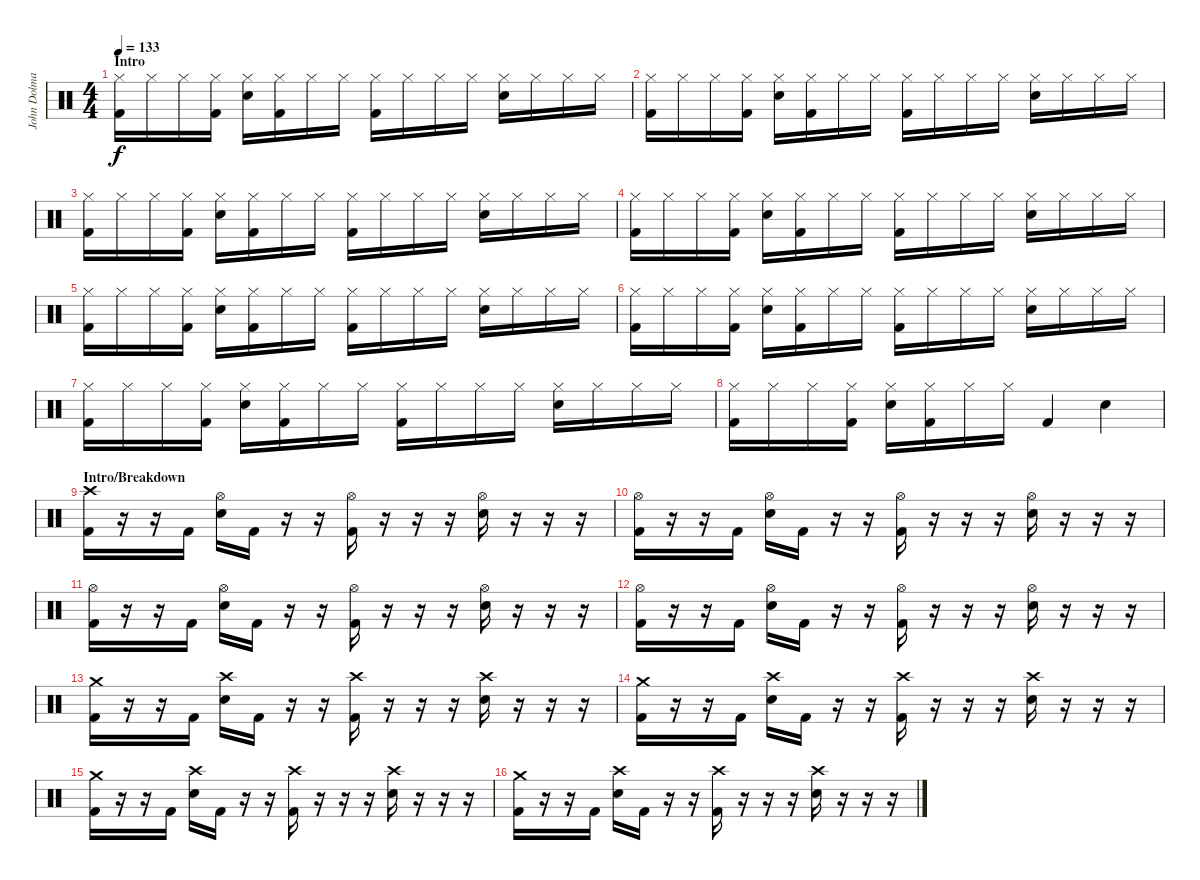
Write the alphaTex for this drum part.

\track ("John Dolmayan" "John Dolma") {instrument percussion}
\staff {score}
\articulation defaults
\ts (4 4)
\section ("" "Intro")
\tempo 133
\clef neutral
\ks c
("Hi-Hat (closed)" "Kick (hit) 2").16{dy f} "Hi-Hat (closed)".16 "Hi-Hat (closed)".16 ("Hi-Hat (closed)" "Kick (hit) 2").16 ("Hi-Hat (closed)" "Electric Snare (hit)").16 ("Hi-Hat (closed)" "Kick (hit) 2").16 "Hi-Hat (closed)".16 "Hi-Hat (closed)".16 ("Hi-Hat (closed)" "Kick (hit) 2").16 "Hi-Hat (closed)".16 "Hi-Hat (closed)".16 "Hi-Hat (closed)".16 ("Hi-Hat (closed)" "Electric Snare (hit)").16 "Hi-Hat (closed)".16 "Hi-Hat (closed)".16 "Hi-Hat (closed)".16 |
("Hi-Hat (closed)" "Kick (hit) 2").16 "Hi-Hat (closed)".16 "Hi-Hat (closed)".16 ("Hi-Hat (closed)" "Kick (hit) 2").16 ("Hi-Hat (closed)" "Electric Snare (hit)").16 ("Hi-Hat (closed)" "Kick (hit) 2").16 "Hi-Hat (closed)".16 "Hi-Hat (closed)".16 ("Hi-Hat (closed)" "Kick (hit) 2").16 "Hi-Hat (closed)".16 "Hi-Hat (closed)".16 "Hi-Hat (closed)".16 ("Hi-Hat (closed)" "Electric Snare (hit)").16 "Hi-Hat (closed)".16 "Hi-Hat (closed)".16 "Hi-Hat (closed)".16 |
("Hi-Hat (closed)" "Kick (hit) 2").16 "Hi-Hat (closed)".16 "Hi-Hat (closed)".16 ("Hi-Hat (closed)" "Kick (hit) 2").16 ("Hi-Hat (closed)" "Electric Snare (hit)").16 ("Hi-Hat (closed)" "Kick (hit) 2").16 "Hi-Hat (closed)".16 "Hi-Hat (closed)".16 ("Hi-Hat (closed)" "Kick (hit) 2").16 "Hi-Hat (closed)".16 "Hi-Hat (closed)".16 "Hi-Hat (closed)".16 ("Hi-Hat (closed)" "Electric Snare (hit)").16 "Hi-Hat (closed)".16 "Hi-Hat (closed)".16 "Hi-Hat (closed)".16 |
("Hi-Hat (closed)" "Kick (hit) 2").16 "Hi-Hat (closed)".16 "Hi-Hat (closed)".16 ("Hi-Hat (closed)" "Kick (hit) 2").16 ("Hi-Hat (closed)" "Electric Snare (hit)").16 ("Hi-Hat (closed)" "Kick (hit) 2").16 "Hi-Hat (closed)".16 "Hi-Hat (closed)".16 ("Hi-Hat (closed)" "Kick (hit) 2").16 "Hi-Hat (closed)".16 "Hi-Hat (closed)".16 "Hi-Hat (closed)".16 ("Hi-Hat (closed)" "Electric Snare (hit)").16 "Hi-Hat (closed)".16 "Hi-Hat (closed)".16 "Hi-Hat (closed)".16 |
("Hi-Hat (closed)" "Kick (hit) 2").16 "Hi-Hat (closed)".16 "Hi-Hat (closed)".16 ("Hi-Hat (closed)" "Kick (hit) 2").16 ("Hi-Hat (closed)" "Electric Snare (hit)").16 ("Hi-Hat (closed)" "Kick (hit) 2").16 "Hi-Hat (closed)".16 "Hi-Hat (closed)".16 ("Hi-Hat (closed)" "Kick (hit) 2").16 "Hi-Hat (closed)".16 "Hi-Hat (closed)".16 "Hi-Hat (closed)".16 ("Hi-Hat (closed)" "Electric Snare (hit)").16 "Hi-Hat (closed)".16 "Hi-Hat (closed)".16 "Hi-Hat (closed)".16 |
("Hi-Hat (closed)" "Kick (hit) 2").16 "Hi-Hat (closed)".16 "Hi-Hat (closed)".16 ("Hi-Hat (closed)" "Kick (hit) 2").16 ("Hi-Hat (closed)" "Electric Snare (hit)").16 ("Hi-Hat (closed)" "Kick (hit) 2").16 "Hi-Hat (closed)".16 "Hi-Hat (closed)".16 ("Hi-Hat (closed)" "Kick (hit) 2").16 "Hi-Hat (closed)".16 "Hi-Hat (closed)".16 "Hi-Hat (closed)".16 ("Hi-Hat (closed)" "Electric Snare (hit)").16 "Hi-Hat (closed)".16 "Hi-Hat (closed)".16 "Hi-Hat (closed)".16 |
("Hi-Hat (closed)" "Kick (hit) 2").16 "Hi-Hat (closed)".16 "Hi-Hat (closed)".16 ("Hi-Hat (closed)" "Kick (hit) 2").16 ("Hi-Hat (closed)" "Electric Snare (hit)").16 ("Hi-Hat (closed)" "Kick (hit) 2").16 "Hi-Hat (closed)".16 "Hi-Hat (closed)".16 ("Hi-Hat (closed)" "Kick (hit) 2").16 "Hi-Hat (closed)".16 "Hi-Hat (closed)".16 "Hi-Hat (closed)".16 ("Hi-Hat (closed)" "Electric Snare (hit)").16 "Hi-Hat (closed)".16 "Hi-Hat (closed)".16 "Hi-Hat (closed)".16 |
("Hi-Hat (closed)" "Kick (hit) 2").16 "Hi-Hat (closed)".16 "Hi-Hat (closed)".16 ("Hi-Hat (closed)" "Kick (hit) 2").16 ("Hi-Hat (closed)" "Electric Snare (hit)").16 ("Hi-Hat (closed)" "Kick (hit) 2").16 "Hi-Hat (closed)".16 "Hi-Hat (closed)".16 "Kick (hit) 2".4 "Electric Snare (hit)".4 |
\section ("" "Intro/Breakdown")
("Crash high (hit)" "Kick (hit) 2").16 r.16 r.16 "Kick (hit) 2".16 ("Hi-Hat (open)" "Electric Snare (hit)").16 "Kick (hit) 2".16 r.16 r.16 ("Hi-Hat (open)" "Kick (hit) 2").16 r.16 r.16 r.16 ("Hi-Hat (open)" "Electric Snare (hit)").16 r.16 r.16 r.16 |
("Hi-Hat (open)" "Kick (hit) 2").16 r.16 r.16 "Kick (hit) 2".16 ("Hi-Hat (open)" "Electric Snare (hit)").16 "Kick (hit) 2".16 r.16 r.16 ("Hi-Hat (open)" "Kick (hit) 2").16 r.16 r.16 r.16 ("Hi-Hat (open)" "Electric Snare (hit)").16 r.16 r.16 r.16 |
("Hi-Hat (open)" "Kick (hit) 2").16 r.16 r.16 "Kick (hit) 2".16 ("Hi-Hat (open)" "Electric Snare (hit)").16 "Kick (hit) 2".16 r.16 r.16 ("Hi-Hat (open)" "Kick (hit) 2").16 r.16 r.16 r.16 ("Hi-Hat (open)" "Electric Snare (hit)").16 r.16 r.16 r.16 |
("Hi-Hat (open)" "Kick (hit) 2").16 r.16 r.16 "Kick (hit) 2".16 ("Hi-Hat (open)" "Electric Snare (hit)").16 "Kick (hit) 2".16 r.16 r.16 ("Hi-Hat (open)" "Kick (hit) 2").16 r.16 r.16 r.16 ("Hi-Hat (open)" "Electric Snare (hit)").16 r.16 r.16 r.16 |
("Crash medium (hit)" "Kick (hit) 2").16 r.16 r.16 "Kick (hit) 2".16 ("Crash high (hit)" "Electric Snare (hit)").16 "Kick (hit) 2".16 r.16 r.16 ("Crash high (hit)" "Kick (hit) 2").16 r.16 r.16 r.16 ("Crash high (hit)" "Electric Snare (hit)").16 r.16 r.16 r.16 |
("Crash medium (hit)" "Kick (hit) 2").16 r.16 r.16 "Kick (hit) 2".16 ("Crash high (hit)" "Electric Snare (hit)").16 "Kick (hit) 2".16 r.16 r.16 ("Crash high (hit)" "Kick (hit) 2").16 r.16 r.16 r.16 ("Crash high (hit)" "Electric Snare (hit)").16 r.16 r.16 r.16 |
("Crash medium (hit)" "Kick (hit) 2").16 r.16 r.16 "Kick (hit) 2".16 ("Crash high (hit)" "Electric Snare (hit)").16 "Kick (hit) 2".16 r.16 r.16 ("Crash high (hit)" "Kick (hit) 2").16 r.16 r.16 r.16 ("Crash high (hit)" "Electric Snare (hit)").16 r.16 r.16 r.16 |
("Crash medium (hit)" "Kick (hit) 2").16 r.16 r.16 "Kick (hit) 2".16 ("Crash high (hit)" "Electric Snare (hit)").16 "Kick (hit) 2".16 r.16 r.16 ("Crash high (hit)" "Kick (hit) 2").16 r.16 r.16 r.16 ("Crash high (hit)" "Electric Snare (hit)").16 r.16 r.16 r.16
